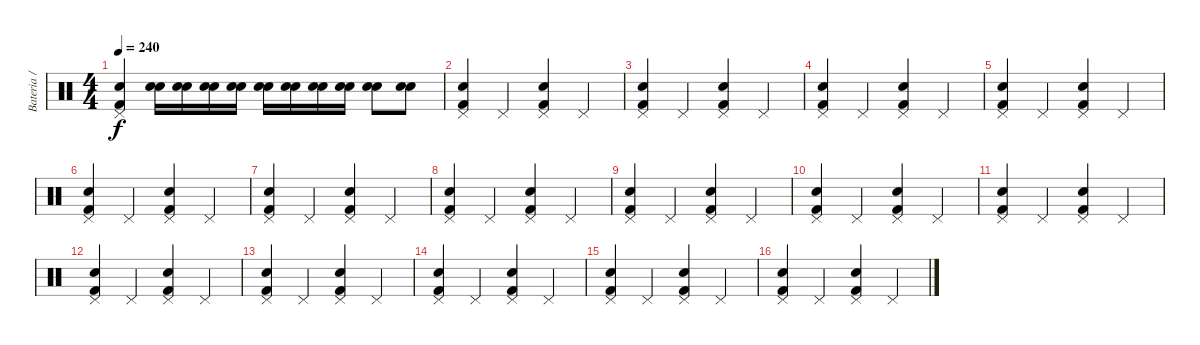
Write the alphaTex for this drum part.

\track ("Bateria / Percusión" "Bateria / ") {instrument percussion}
\staff {score}
\articulation defaults
\ts (4 4)
\tempo 240
\clef neutral
\ks c
("Kick (hit) 2" "Pedal Hi-Hat (hit)" "Snare (hit) 2").4{dy f} ("Snare (hit) 2" "Snare (hit) 2").16 ("Snare (hit) 2" "Snare (hit) 2").16 ("Snare (hit) 2" "Snare (hit) 2").16 ("Snare (hit) 2" "Snare (hit) 2").16 ("Snare (hit) 2" "Snare (hit) 2").16 ("Snare (hit) 2" "Snare (hit) 2").16 ("Snare (hit) 2" "Snare (hit) 2").16 ("Snare (hit) 2" "Snare (hit) 2").16 ("Snare (hit) 2" "Snare (hit) 2").8 ("Snare (hit) 2" "Snare (hit) 2").8 |
("Kick (hit) 2" "Pedal Hi-Hat (hit)" "Snare (hit) 2").4 "Pedal Hi-Hat (hit)".4 ("Kick (hit) 2" "Pedal Hi-Hat (hit)" "Snare (hit) 2").4 "Pedal Hi-Hat (hit)".4 |
("Kick (hit) 2" "Pedal Hi-Hat (hit)" "Snare (hit) 2").4 "Pedal Hi-Hat (hit)".4 ("Kick (hit) 2" "Pedal Hi-Hat (hit)" "Snare (hit) 2").4 "Pedal Hi-Hat (hit)".4 |
("Kick (hit) 2" "Pedal Hi-Hat (hit)" "Snare (hit) 2").4 "Pedal Hi-Hat (hit)".4 ("Kick (hit) 2" "Pedal Hi-Hat (hit)" "Snare (hit) 2").4 "Pedal Hi-Hat (hit)".4 |
("Kick (hit) 2" "Pedal Hi-Hat (hit)" "Snare (hit) 2").4 "Pedal Hi-Hat (hit)".4 ("Kick (hit) 2" "Pedal Hi-Hat (hit)" "Snare (hit) 2").4 "Pedal Hi-Hat (hit)".4 |
("Kick (hit) 2" "Pedal Hi-Hat (hit)" "Snare (hit) 2").4 "Pedal Hi-Hat (hit)".4 ("Kick (hit) 2" "Pedal Hi-Hat (hit)" "Snare (hit) 2").4 "Pedal Hi-Hat (hit)".4 |
("Kick (hit) 2" "Pedal Hi-Hat (hit)" "Snare (hit) 2").4 "Pedal Hi-Hat (hit)".4 ("Kick (hit) 2" "Pedal Hi-Hat (hit)" "Snare (hit) 2").4 "Pedal Hi-Hat (hit)".4 |
("Kick (hit) 2" "Pedal Hi-Hat (hit)" "Snare (hit) 2").4 "Pedal Hi-Hat (hit)".4 ("Kick (hit) 2" "Pedal Hi-Hat (hit)" "Snare (hit) 2").4 "Pedal Hi-Hat (hit)".4 |
("Kick (hit) 2" "Pedal Hi-Hat (hit)" "Snare (hit) 2").4 "Pedal Hi-Hat (hit)".4 ("Kick (hit) 2" "Pedal Hi-Hat (hit)" "Snare (hit) 2").4 "Pedal Hi-Hat (hit)".4 |
("Kick (hit) 2" "Pedal Hi-Hat (hit)" "Snare (hit) 2").4 "Pedal Hi-Hat (hit)".4 ("Kick (hit) 2" "Pedal Hi-Hat (hit)" "Snare (hit) 2").4 "Pedal Hi-Hat (hit)".4 |
("Kick (hit) 2" "Pedal Hi-Hat (hit)" "Snare (hit) 2").4 "Pedal Hi-Hat (hit)".4 ("Kick (hit) 2" "Pedal Hi-Hat (hit)" "Snare (hit) 2").4 "Pedal Hi-Hat (hit)".4 |
("Kick (hit) 2" "Pedal Hi-Hat (hit)" "Snare (hit) 2").4 "Pedal Hi-Hat (hit)".4 ("Kick (hit) 2" "Pedal Hi-Hat (hit)" "Snare (hit) 2").4 "Pedal Hi-Hat (hit)".4 |
("Kick (hit) 2" "Pedal Hi-Hat (hit)" "Snare (hit) 2").4 "Pedal Hi-Hat (hit)".4 ("Kick (hit) 2" "Pedal Hi-Hat (hit)" "Snare (hit) 2").4 "Pedal Hi-Hat (hit)".4 |
("Kick (hit) 2" "Pedal Hi-Hat (hit)" "Snare (hit) 2").4 "Pedal Hi-Hat (hit)".4 ("Kick (hit) 2" "Pedal Hi-Hat (hit)" "Snare (hit) 2").4 "Pedal Hi-Hat (hit)".4 |
("Kick (hit) 2" "Pedal Hi-Hat (hit)" "Snare (hit) 2").4 "Pedal Hi-Hat (hit)".4 ("Kick (hit) 2" "Pedal Hi-Hat (hit)" "Snare (hit) 2").4 "Pedal Hi-Hat (hit)".4 |
("Kick (hit) 2" "Pedal Hi-Hat (hit)" "Snare (hit) 2").4 "Pedal Hi-Hat (hit)".4 ("Kick (hit) 2" "Pedal Hi-Hat (hit)" "Snare (hit) 2").4 "Pedal Hi-Hat (hit)".4
